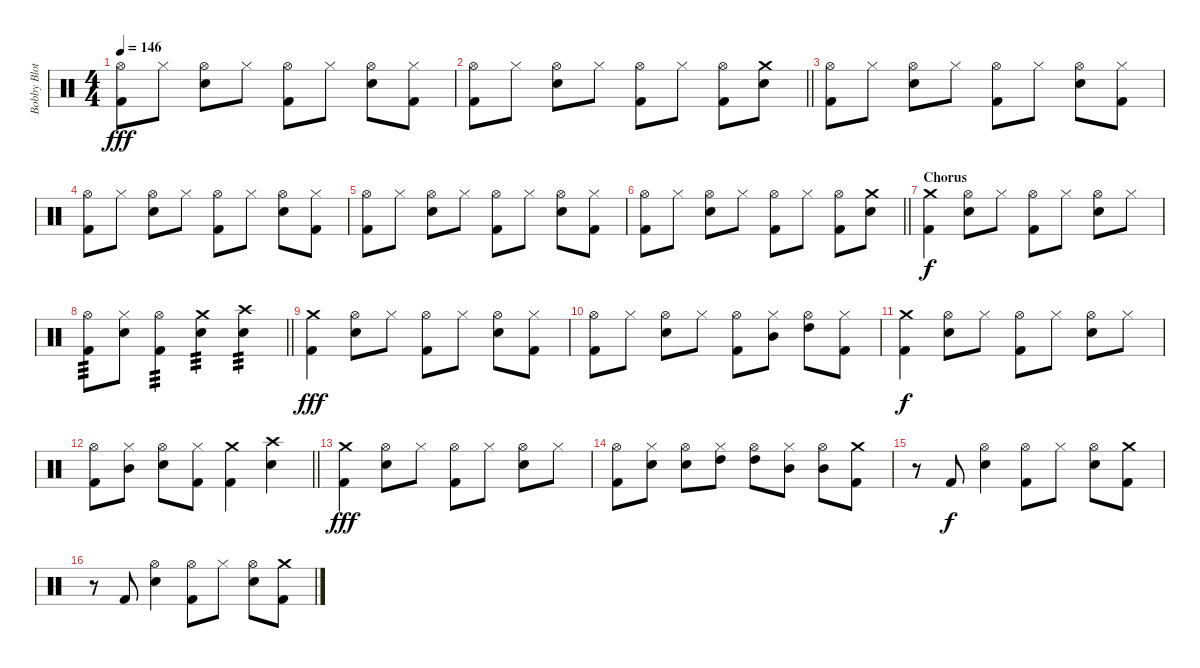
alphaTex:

\track ("Bobby Blotzer - Drums" "Bobby Blot") {instrument percussion}
\staff {score}
\articulation defaults
\ts (4 4)
\tempo 146
\clef neutral
\ks c
("Hi-Hat (open)" "Kick (hit) 2").8{dy fff} "Hi-Hat (closed)".8 ("Hi-Hat (open)" "Snare (hit) 2").8 "Hi-Hat (closed)".8 ("Hi-Hat (open)" "Kick (hit) 2").8 "Hi-Hat (closed)".8 ("Hi-Hat (open)" "Snare (hit) 2").8 ("Hi-Hat (closed)" "Kick (hit) 2").8 |
\barLineRight lightlight
("Hi-Hat (open)" "Kick (hit) 2").8 "Hi-Hat (closed)".8 ("Hi-Hat (open)" "Snare (hit) 2").8 "Hi-Hat (closed)".8 ("Hi-Hat (open)" "Kick (hit) 2").8 "Hi-Hat (closed)".8 ("Hi-Hat (open)" "Kick (hit) 2").8 ("Crash medium (hit)" "Snare (hit) 2").8 |
("Hi-Hat (open)" "Kick (hit) 2").8 "Hi-Hat (closed)".8 ("Hi-Hat (open)" "Snare (hit) 2").8 "Hi-Hat (closed)".8 ("Hi-Hat (open)" "Kick (hit) 2").8 "Hi-Hat (closed)".8 ("Hi-Hat (open)" "Snare (hit) 2").8 ("Hi-Hat (closed)" "Kick (hit) 2").8 |
("Hi-Hat (open)" "Kick (hit) 2").8 "Hi-Hat (closed)".8 ("Hi-Hat (open)" "Snare (hit) 2").8 "Hi-Hat (closed)".8 ("Hi-Hat (open)" "Kick (hit) 2").8 "Hi-Hat (closed)".8 ("Hi-Hat (open)" "Snare (hit) 2").8 ("Hi-Hat (closed)" "Kick (hit) 2").8 |
("Hi-Hat (open)" "Kick (hit) 2").8 "Hi-Hat (closed)".8 ("Hi-Hat (open)" "Snare (hit) 2").8 "Hi-Hat (closed)".8 ("Hi-Hat (open)" "Kick (hit) 2").8 "Hi-Hat (closed)".8 ("Hi-Hat (open)" "Snare (hit) 2").8 ("Hi-Hat (closed)" "Kick (hit) 2").8 |
\barLineRight lightlight
("Hi-Hat (open)" "Kick (hit) 2").8 "Hi-Hat (closed)".8 ("Hi-Hat (open)" "Snare (hit) 2").8 "Hi-Hat (closed)".8 ("Hi-Hat (open)" "Kick (hit) 2").8 "Hi-Hat (closed)".8 ("Hi-Hat (open)" "Kick (hit) 2").8 ("Crash medium (hit)" "Snare (hit) 2").8 |
\section ("" "Chorus")
("Crash medium (hit)" "Kick (hit) 2").4{dy f} ("Hi-Hat (open)" "Snare (hit) 2").8 "Hi-Hat (closed)".8 ("Hi-Hat (open)" "Kick (hit) 2").8 "Hi-Hat (closed)".8 ("Hi-Hat (open)" "Snare (hit) 2").8 "Hi-Hat (closed)".8 |
\barLineRight lightlight
("Hi-Hat (open)" "Kick (hit) 2").8{tp 3} ("Hi-Hat (closed)" "Snare (hit) 2").8 ("Hi-Hat (open)" "Kick (hit) 2").4{tp 3} ("Crash medium (hit)" "Snare (hit) 2").4{tp 3} ("Crash high (hit)" "Snare (hit) 2").4{tp 3} |
\section ("" "")
("Crash medium (hit)" "Kick (hit) 2").4{dy fff} ("Hi-Hat (open)" "Snare (hit) 2").8 "Hi-Hat (closed)".8 ("Hi-Hat (open)" "Kick (hit) 2").8 "Hi-Hat (closed)".8 ("Hi-Hat (open)" "Snare (hit) 2").8 ("Hi-Hat (closed)" "Kick (hit) 2").8 |
("Hi-Hat (open)" "Kick (hit) 2").8 "Hi-Hat (closed)".8 ("Hi-Hat (open)" "Snare (hit) 2").8 "Hi-Hat (closed)".8 ("Hi-Hat (open)" "Kick (hit) 2").8 ("Hi-Hat (closed)" "Mid Tom (hit)").8 ("Hi-Hat (open)" "High Tom (hit)").8 ("Hi-Hat (closed)" "Kick (hit) 2").8 |
("Crash medium (hit)" "Kick (hit) 2").4{dy f} ("Hi-Hat (open)" "Snare (hit) 2").8 "Hi-Hat (closed)".8 ("Hi-Hat (open)" "Kick (hit) 2").8 "Hi-Hat (closed)".8 ("Hi-Hat (open)" "Snare (hit) 2").8 "Hi-Hat (closed)".8 |
\barLineRight lightlight
("Hi-Hat (open)" "Kick (hit) 2").8 ("Hi-Hat (closed)" "Mid Tom (hit)").8 ("Hi-Hat (open)" "Snare (hit) 2").8 ("Hi-Hat (closed)" "Kick (hit) 2").8 ("Crash medium (hit)" "Kick (hit) 2").4 ("Crash high (hit)" "Snare (hit) 2").4 |
("Crash medium (hit)" "Kick (hit) 2").4{dy fff} ("Hi-Hat (open)" "Snare (hit) 2").8 "Hi-Hat (closed)".8 ("Hi-Hat (open)" "Kick (hit) 2").8 "Hi-Hat (closed)".8 ("Hi-Hat (open)" "Snare (hit) 2").8 "Hi-Hat (closed)".8 |
("Hi-Hat (open)" "Kick (hit) 2").8 ("Hi-Hat (closed)" "Snare (hit) 2").8 ("Hi-Hat (open)" "Snare (hit) 2").8 ("Hi-Hat (closed)" "High Tom (hit)").8 ("Hi-Hat (open)" "High Tom (hit)").8 ("Hi-Hat (closed)" "Mid Tom (hit)").8 ("Hi-Hat (open)" "Mid Tom (hit)").8 ("Crash medium (hit)" "Kick (hit) 2").8 |
r.8 "Kick (hit) 2".8{dy f} ("Hi-Hat (open)" "Snare (hit) 2").4 ("Hi-Hat (open)" "Kick (hit) 2").8 "Hi-Hat (closed)".8 ("Hi-Hat (open)" "Snare (hit) 2").8 ("Crash medium (hit)" "Kick (hit) 2").8 |
r.8 "Kick (hit) 2".8 ("Hi-Hat (open)" "Snare (hit) 2").4 ("Hi-Hat (open)" "Kick (hit) 2").8 "Hi-Hat (closed)".8 ("Hi-Hat (open)" "Snare (hit) 2").8 ("Crash medium (hit)" "Kick (hit) 2").8
